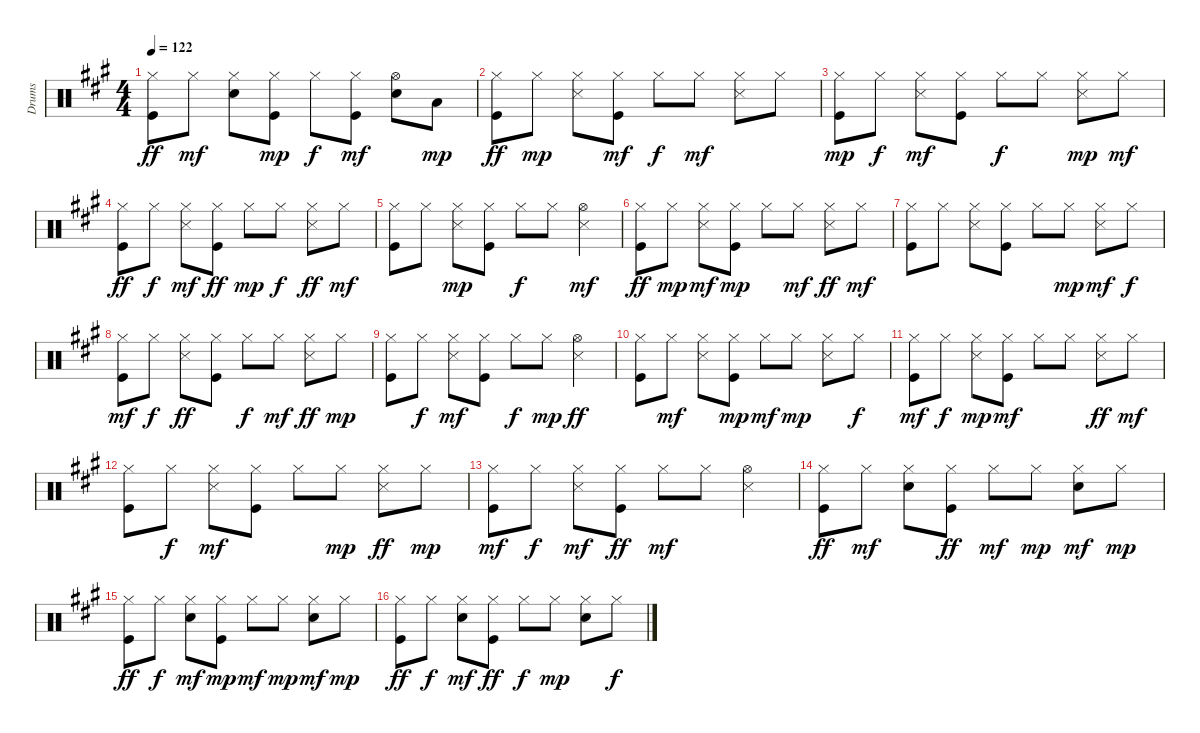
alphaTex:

\track ("Drums" "Drums") {instrument percussion}
\staff {score}
\articulation defaults
\ts (4 4)
\tempo 122
\clef neutral
\ks a
("Kick (hit)" "Hi-Hat (closed)").8{dy ff} "Hi-Hat (closed)".8{dy mf} ("Electric Snare (hit)" "Hi-Hat (closed)").8 ("Kick (hit)" "Hi-Hat (closed)").8{dy mp} "Hi-Hat (closed)".8{dy f} ("Kick (hit)" "Hi-Hat (closed)").8{dy mf} ("Electric Snare (hit)" "Hi-Hat (open)").8 "Low Tom (hit)".8{dy mp} |
("Kick (hit)" "Hi-Hat (closed)").8{dy ff} "Hi-Hat (closed)".8{dy mp} ("Snare (side stick) 3" "Hi-Hat (closed)").8 ("Kick (hit)" "Hi-Hat (closed)").8{dy mf} "Hi-Hat (closed)".8{dy f} "Hi-Hat (closed)".8{dy mf} ("Snare (side stick) 3" "Hi-Hat (closed)").8 "Hi-Hat (closed)".8 |
("Kick (hit)" "Hi-Hat (closed)").8{dy mp} "Hi-Hat (closed)".8{dy f} ("Snare (side stick) 3" "Hi-Hat (closed)").8{dy mf} ("Kick (hit)" "Hi-Hat (closed)").8 "Hi-Hat (closed)".8{dy f} "Hi-Hat (closed)".8 ("Snare (side stick) 3" "Hi-Hat (closed)").8{dy mp} "Hi-Hat (closed)".8{dy mf} |
("Kick (hit)" "Hi-Hat (closed)").8{dy ff} "Hi-Hat (closed)".8{dy f} ("Snare (side stick) 3" "Hi-Hat (closed)").8{dy mf} ("Kick (hit)" "Hi-Hat (closed)").8{dy ff} "Hi-Hat (closed)".8{dy mp} "Hi-Hat (closed)".8{dy f} ("Snare (side stick) 3" "Hi-Hat (closed)").8{dy ff} "Hi-Hat (closed)".8{dy mf} |
("Kick (hit)" "Hi-Hat (closed)").8 "Hi-Hat (closed)".8 ("Snare (side stick) 3" "Hi-Hat (closed)").8{dy mp} ("Kick (hit)" "Hi-Hat (closed)").8 "Hi-Hat (closed)".8{dy f} "Hi-Hat (closed)".8 ("Snare (side stick) 3" "Hi-Hat (open)").4{dy mf} |
("Kick (hit)" "Hi-Hat (closed)").8{dy ff} "Hi-Hat (closed)".8{dy mp} ("Snare (side stick) 3" "Hi-Hat (closed)").8{dy mf} ("Kick (hit)" "Hi-Hat (closed)").8{dy mp} "Hi-Hat (closed)".8 "Hi-Hat (closed)".8{dy mf} ("Snare (side stick) 3" "Hi-Hat (closed)").8{dy ff} "Hi-Hat (closed)".8{dy mf} |
("Kick (hit)" "Hi-Hat (closed)").8 "Hi-Hat (closed)".8 ("Snare (side stick) 3" "Hi-Hat (closed)").8 ("Kick (hit)" "Hi-Hat (closed)").8 "Hi-Hat (closed)".8 "Hi-Hat (closed)".8{dy mp} ("Snare (side stick) 3" "Hi-Hat (closed)").8{dy mf} "Hi-Hat (closed)".8{dy f} |
("Kick (hit)" "Hi-Hat (closed)").8{dy mf} "Hi-Hat (closed)".8{dy f} ("Snare (side stick) 3" "Hi-Hat (closed)").8{dy ff} ("Kick (hit)" "Hi-Hat (closed)").8 "Hi-Hat (closed)".8{dy f} "Hi-Hat (closed)".8{dy mf} ("Snare (side stick) 3" "Hi-Hat (closed)").8{dy ff} "Hi-Hat (closed)".8{dy mp} |
("Kick (hit)" "Hi-Hat (closed)").8 "Hi-Hat (closed)".8{dy f} ("Snare (side stick) 3" "Hi-Hat (closed)").8{dy mf} ("Kick (hit)" "Hi-Hat (closed)").8 "Hi-Hat (closed)".8{dy f} "Hi-Hat (closed)".8{dy mp} ("Snare (side stick) 3" "Hi-Hat (open)").4{dy ff} |
("Kick (hit)" "Hi-Hat (closed)").8 "Hi-Hat (closed)".8{dy mf} ("Snare (side stick) 3" "Hi-Hat (closed)").8 ("Kick (hit)" "Hi-Hat (closed)").8{dy mp} "Hi-Hat (closed)".8{dy mf} "Hi-Hat (closed)".8{dy mp} ("Snare (side stick) 3" "Hi-Hat (closed)").8 "Hi-Hat (closed)".8{dy f} |
("Kick (hit)" "Hi-Hat (closed)").8{dy mf} "Hi-Hat (closed)".8{dy f} ("Snare (side stick) 3" "Hi-Hat (closed)").8{dy mp} ("Kick (hit)" "Hi-Hat (closed)").8{dy mf} "Hi-Hat (closed)".8 "Hi-Hat (closed)".8 ("Snare (side stick) 3" "Hi-Hat (closed)").8{dy ff} "Hi-Hat (closed)".8{dy mf} |
("Kick (hit)" "Hi-Hat (closed)").8 "Hi-Hat (closed)".8{dy f} ("Snare (side stick) 3" "Hi-Hat (closed)").8{dy mf} ("Kick (hit)" "Hi-Hat (closed)").8 "Hi-Hat (closed)".8 "Hi-Hat (closed)".8{dy mp} ("Snare (side stick) 3" "Hi-Hat (closed)").8{dy ff} "Hi-Hat (closed)".8{dy mp} |
("Kick (hit)" "Hi-Hat (closed)").8{dy mf} "Hi-Hat (closed)".8{dy f} ("Snare (side stick) 3" "Hi-Hat (closed)").8{dy mf} ("Kick (hit)" "Hi-Hat (closed)").8{dy ff} "Hi-Hat (closed)".8{dy mf} "Hi-Hat (closed)".8 ("Snare (side stick) 3" "Hi-Hat (open)").4 |
("Kick (hit)" "Hi-Hat (closed)").8{dy ff} "Hi-Hat (closed)".8{dy mf} ("Electric Snare (hit)" "Hi-Hat (closed)").8 ("Kick (hit)" "Hi-Hat (closed)").8{dy ff} "Hi-Hat (closed)".8{dy mf} "Hi-Hat (closed)".8{dy mp} ("Electric Snare (hit)" "Hi-Hat (closed)").8{dy mf} "Hi-Hat (closed)".8{dy mp} |
("Kick (hit)" "Hi-Hat (closed)").8{dy ff} "Hi-Hat (closed)".8{dy f} ("Electric Snare (hit)" "Hi-Hat (closed)").8{dy mf} ("Kick (hit)" "Hi-Hat (closed)").8{dy mp} "Hi-Hat (closed)".8{dy mf} "Hi-Hat (closed)".8{dy mp} ("Electric Snare (hit)" "Hi-Hat (closed)").8{dy mf} "Hi-Hat (closed)".8{dy mp} |
("Kick (hit)" "Hi-Hat (closed)").8{dy ff} "Hi-Hat (closed)".8{dy f} ("Electric Snare (hit)" "Hi-Hat (closed)").8{dy mf} ("Kick (hit)" "Hi-Hat (closed)").8{dy ff} "Hi-Hat (closed)".8{dy f} "Hi-Hat (closed)".8{dy mp} ("Electric Snare (hit)" "Hi-Hat (closed)").8 "Hi-Hat (closed)".8{dy f}
